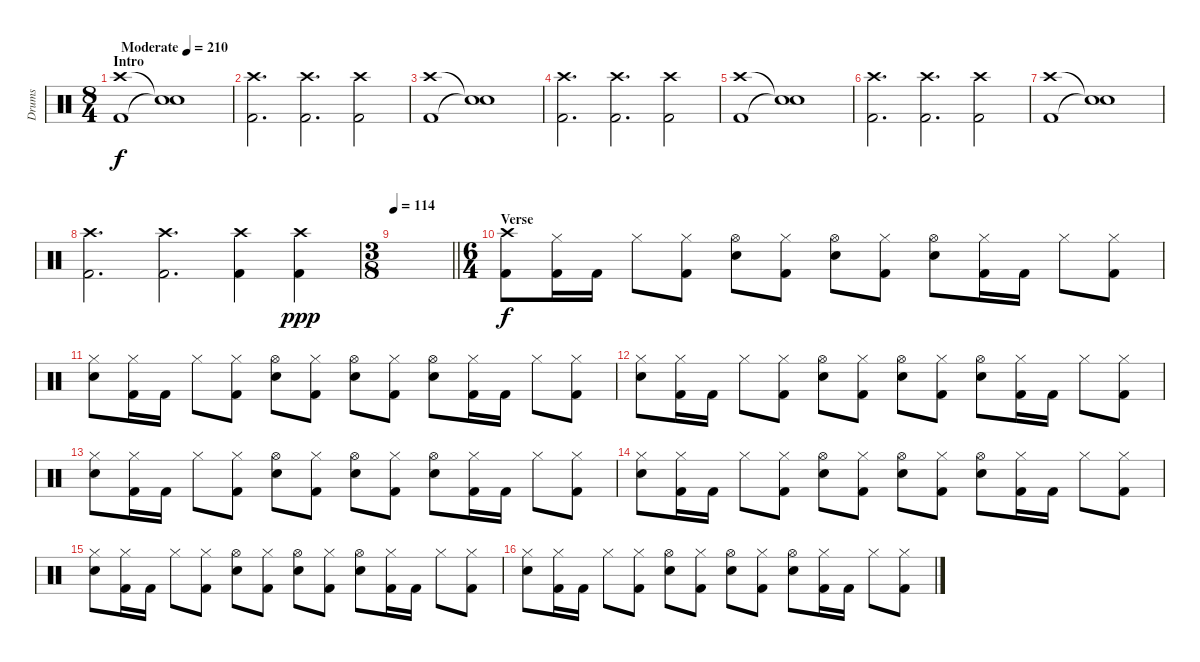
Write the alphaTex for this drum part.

\track ("Drums" "Drums") {instrument percussion}
\staff {score}
\articulation defaults
\ts (8 4)
\section ("" "Intro")
\tempo (210 "Moderate")
\clef neutral
\ks c
("Crash high (hit)" "Kick (hit) 2").1{dy f} ("Snare (hit)"{t} "Snare (hit)"{t}).1 |
("Crash high (hit)" "Kick (hit) 2").2{d} ("Crash high (hit)" "Kick (hit) 2").2{d} ("Crash high (hit)" "Kick (hit) 2").2 |
("Crash high (hit)" "Kick (hit) 2").1 ("Snare (hit)"{t} "Snare (hit)"{t}).1 |
("Crash high (hit)" "Kick (hit) 2").2{d} ("Crash high (hit)" "Kick (hit) 2").2{d} ("Crash high (hit)" "Kick (hit) 2").2 |
("Crash high (hit)" "Kick (hit) 2").1 ("Snare (hit)"{t} "Snare (hit)"{t}).1 |
("Crash high (hit)" "Kick (hit) 2").2{d} ("Crash high (hit)" "Kick (hit) 2").2{d} ("Crash high (hit)" "Kick (hit) 2").2 |
("Crash high (hit)" "Kick (hit) 2").1 ("Snare (hit)"{t} "Snare (hit)"{t}).1 |
("Crash high (hit)" "Kick (hit) 2").2{d} ("Crash high (hit)" "Kick (hit) 2").2{d} ("Crash high (hit)" "Kick (hit) 2").4 ("Crash high (hit)" "Kick (hit) 2").4{dy ppp} |
\ts (3 8)
\tempo 114
\barLineRight lightlight
|
\ts (6 4)
\section ("" "Verse")
("Crash high (hit)" "Kick (hit) 2").8{dy f} ("Hi-Hat (closed)" "Kick (hit) 2").16 "Kick (hit) 2".16 "Hi-Hat (closed)".8 ("Hi-Hat (closed)" "Kick (hit) 2").8 ("Hi-Hat (open)" "Snare (hit) 2").8 ("Hi-Hat (closed)" "Kick (hit) 2").8 ("Hi-Hat (open)" "Snare (hit) 2").8 ("Hi-Hat (closed)" "Kick (hit) 2").8 ("Hi-Hat (open)" "Snare (hit) 2").8 ("Hi-Hat (closed)" "Kick (hit) 2").16 "Kick (hit) 2".16 "Hi-Hat (closed)".8 ("Hi-Hat (closed)" "Kick (hit) 2").8 |
("Hi-Hat (closed)" "Snare (hit) 2").8 ("Hi-Hat (closed)" "Kick (hit) 2").16 "Kick (hit) 2".16 "Hi-Hat (closed)".8 ("Hi-Hat (closed)" "Kick (hit) 2").8 ("Hi-Hat (open)" "Snare (hit) 2").8 ("Hi-Hat (closed)" "Kick (hit) 2").8 ("Hi-Hat (open)" "Snare (hit) 2").8 ("Hi-Hat (closed)" "Kick (hit) 2").8 ("Hi-Hat (open)" "Snare (hit) 2").8 ("Hi-Hat (closed)" "Kick (hit) 2").16 "Kick (hit) 2".16 "Hi-Hat (closed)".8 ("Hi-Hat (closed)" "Kick (hit) 2").8 |
("Hi-Hat (closed)" "Snare (hit) 2").8 ("Hi-Hat (closed)" "Kick (hit) 2").16 "Kick (hit) 2".16 "Hi-Hat (closed)".8 ("Hi-Hat (closed)" "Kick (hit) 2").8 ("Hi-Hat (open)" "Snare (hit) 2").8 ("Hi-Hat (closed)" "Kick (hit) 2").8 ("Hi-Hat (open)" "Snare (hit) 2").8 ("Hi-Hat (closed)" "Kick (hit) 2").8 ("Hi-Hat (open)" "Snare (hit) 2").8 ("Hi-Hat (closed)" "Kick (hit) 2").16 "Kick (hit) 2".16 "Hi-Hat (closed)".8 ("Hi-Hat (closed)" "Kick (hit) 2").8 |
("Hi-Hat (closed)" "Snare (hit) 2").8 ("Hi-Hat (closed)" "Kick (hit) 2").16 "Kick (hit) 2".16 "Hi-Hat (closed)".8 ("Hi-Hat (closed)" "Kick (hit) 2").8 ("Hi-Hat (open)" "Snare (hit) 2").8 ("Hi-Hat (closed)" "Kick (hit) 2").8 ("Hi-Hat (open)" "Snare (hit) 2").8 ("Hi-Hat (closed)" "Kick (hit) 2").8 ("Hi-Hat (open)" "Snare (hit) 2").8 ("Hi-Hat (closed)" "Kick (hit) 2").16 "Kick (hit) 2".16 "Hi-Hat (closed)".8 ("Hi-Hat (closed)" "Kick (hit) 2").8 |
("Hi-Hat (closed)" "Snare (hit) 2").8 ("Hi-Hat (closed)" "Kick (hit) 2").16 "Kick (hit) 2".16 "Hi-Hat (closed)".8 ("Hi-Hat (closed)" "Kick (hit) 2").8 ("Hi-Hat (open)" "Snare (hit) 2").8 ("Hi-Hat (closed)" "Kick (hit) 2").8 ("Hi-Hat (open)" "Snare (hit) 2").8 ("Hi-Hat (closed)" "Kick (hit) 2").8 ("Hi-Hat (open)" "Snare (hit) 2").8 ("Hi-Hat (closed)" "Kick (hit) 2").16 "Kick (hit) 2".16 "Hi-Hat (closed)".8 ("Hi-Hat (closed)" "Kick (hit) 2").8 |
("Hi-Hat (closed)" "Snare (hit) 2").8 ("Hi-Hat (closed)" "Kick (hit) 2").16 "Kick (hit) 2".16 "Hi-Hat (closed)".8 ("Hi-Hat (closed)" "Kick (hit) 2").8 ("Hi-Hat (open)" "Snare (hit) 2").8 ("Hi-Hat (closed)" "Kick (hit) 2").8 ("Hi-Hat (open)" "Snare (hit) 2").8 ("Hi-Hat (closed)" "Kick (hit) 2").8 ("Hi-Hat (open)" "Snare (hit) 2").8 ("Hi-Hat (closed)" "Kick (hit) 2").16 "Kick (hit) 2".16 "Hi-Hat (closed)".8 ("Hi-Hat (closed)" "Kick (hit) 2").8 |
("Hi-Hat (closed)" "Snare (hit) 2").8 ("Hi-Hat (closed)" "Kick (hit) 2").16 "Kick (hit) 2".16 "Hi-Hat (closed)".8 ("Hi-Hat (closed)" "Kick (hit) 2").8 ("Hi-Hat (open)" "Snare (hit) 2").8 ("Hi-Hat (closed)" "Kick (hit) 2").8 ("Hi-Hat (open)" "Snare (hit) 2").8 ("Hi-Hat (closed)" "Kick (hit) 2").8 ("Hi-Hat (open)" "Snare (hit) 2").8 ("Hi-Hat (closed)" "Kick (hit) 2").16 "Kick (hit) 2".16 "Hi-Hat (closed)".8 ("Hi-Hat (closed)" "Kick (hit) 2").8
